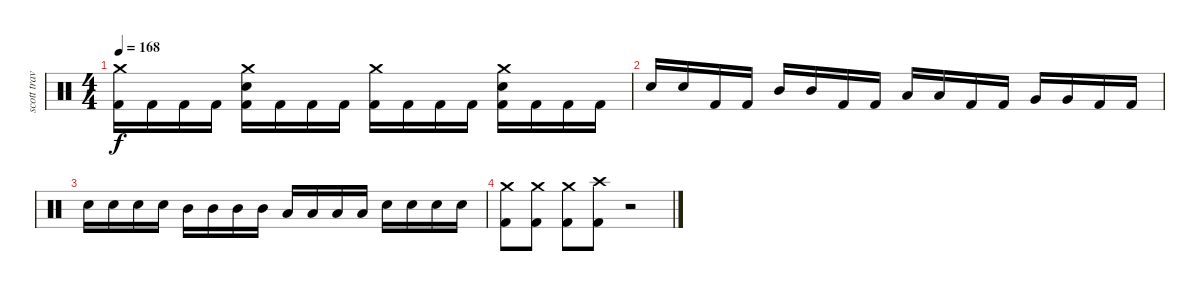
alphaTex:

\track ("scott travis" "scott trav") {instrument percussion}
\staff {score}
\articulation defaults
\ts (4 4)
\tempo 168
\clef neutral
\ks c
("Crash medium (hit)" "Kick (hit) 2").16{dy f} "Kick (hit) 2".16 "Kick (hit) 2".16 "Kick (hit) 2".16 ("Crash medium (hit)" "Snare (hit) 2" "Kick (hit) 2").16 "Kick (hit) 2".16 "Kick (hit) 2".16 "Kick (hit) 2".16 ("Crash medium (hit)" "Kick (hit) 2").16 "Kick (hit) 2".16 "Kick (hit) 2".16 "Kick (hit) 2".16 ("Crash medium (hit)" "Snare (hit) 2" "Kick (hit) 2").16 "Kick (hit) 2".16 "Kick (hit) 2".16 "Kick (hit) 2".16 |
"Snare (hit) 2".16 "Snare (hit) 2".16 "Kick (hit) 2".16 "Kick (hit) 2".16 "Mid Tom (hit)".16 "Mid Tom (hit)".16 "Kick (hit) 2".16 "Kick (hit) 2".16 "Low Tom (hit)".16 "Low Tom (hit)".16 "Kick (hit) 2".16 "Kick (hit) 2".16 "Very Low Tom (hit)".16 "Very Low Tom (hit)".16 "Kick (hit) 2".16 "Kick (hit) 2".16 |
"Snare (hit) 2".16 "Snare (hit) 2".16 "Snare (hit) 2".16 "Snare (hit) 2".16 "Mid Tom (hit)".16 "Mid Tom (hit)".16 "Mid Tom (hit)".16 "Mid Tom (hit)".16 "Low Tom (hit)".16 "Low Tom (hit)".16 "Low Tom (hit)".16 "Low Tom (hit)".16 "Snare (hit) 2".16 "Snare (hit) 2".16 "Snare (hit) 2".16 "Snare (hit) 2".16 |
("Crash medium (hit)" "Kick (hit) 2").8 ("Crash medium (hit)" "Kick (hit) 2").8 ("Crash medium (hit)" "Kick (hit) 2").8 ("Crash high (hit)" "Kick (hit) 2").8 r.2
